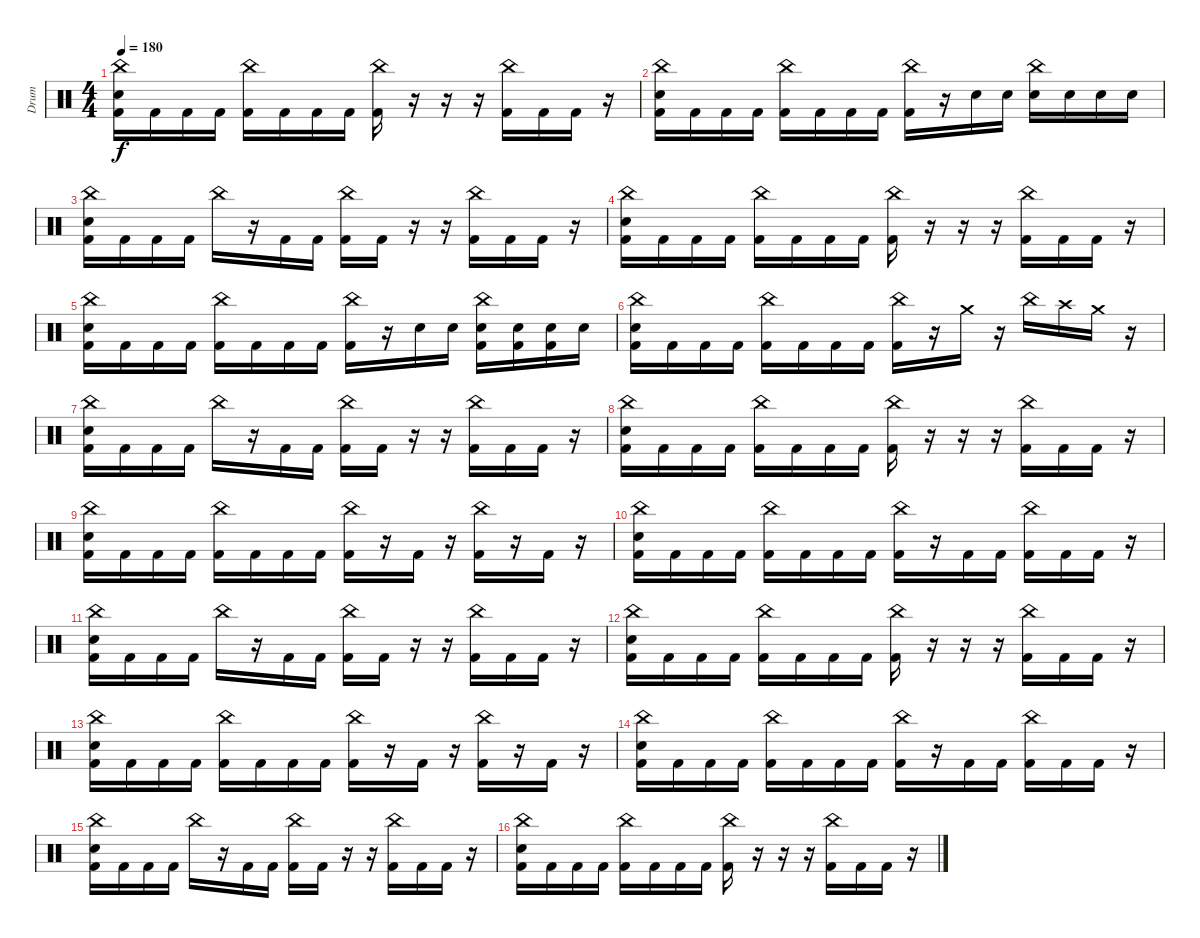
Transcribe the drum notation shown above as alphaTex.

\track ("Drum" "Drum") {instrument percussion}
\staff {score}
\articulation defaults
\ts (4 4)
\tempo 180
\clef neutral
\ks c
("China (hit)" "Electric Snare (hit)" "Kick (hit) 2").16{dy f} "Kick (hit) 2".16 "Kick (hit) 2".16 "Kick (hit) 2".16 ("China (hit)" "Kick (hit) 2").16 "Kick (hit) 2".16 "Kick (hit) 2".16 "Kick (hit) 2".16 ("China (hit)" "Kick (hit) 2").16 r.16 r.16 r.16 ("China (hit)" "Kick (hit) 2").16 "Kick (hit) 2".16 "Kick (hit) 2".16 r.16 |
("China (hit)" "Electric Snare (hit)" "Kick (hit) 2").16 "Kick (hit) 2".16 "Kick (hit) 2".16 "Kick (hit) 2".16 ("China (hit)" "Kick (hit) 2").16 "Kick (hit) 2".16 "Kick (hit) 2".16 "Kick (hit) 2".16 ("China (hit)" "Kick (hit) 2").16 r.16 "Electric Snare (hit)".16 "Electric Snare (hit)".16 ("China (hit)" "Electric Snare (hit)").16 "Electric Snare (hit)".16 "Electric Snare (hit)".16 "Electric Snare (hit)".16 |
("China (hit)" "Electric Snare (hit)" "Kick (hit) 2").16 "Kick (hit) 2".16 "Kick (hit) 2".16 "Kick (hit) 2".16 "China (hit)".16 r.16 "Kick (hit) 2".16 "Kick (hit) 2".16 ("China (hit)" "Kick (hit) 2").16 "Kick (hit) 2".16 r.16 r.16 ("China (hit)" "Kick (hit) 2").16 "Kick (hit) 2".16 "Kick (hit) 2".16 r.16 |
("China (hit)" "Electric Snare (hit)" "Kick (hit) 2").16 "Kick (hit) 2".16 "Kick (hit) 2".16 "Kick (hit) 2".16 ("China (hit)" "Kick (hit) 2").16 "Kick (hit) 2".16 "Kick (hit) 2".16 "Kick (hit) 2".16 ("China (hit)" "Kick (hit) 2").16 r.16 r.16 r.16 ("China (hit)" "Kick (hit) 2").16 "Kick (hit) 2".16 "Kick (hit) 2".16 r.16 |
("China (hit)" "Electric Snare (hit)" "Kick (hit) 2").16 "Kick (hit) 2".16 "Kick (hit) 2".16 "Kick (hit) 2".16 ("China (hit)" "Kick (hit) 2").16 "Kick (hit) 2".16 "Kick (hit) 2".16 "Kick (hit) 2".16 ("China (hit)" "Kick (hit) 2").16 r.16 "Electric Snare (hit)".16 "Electric Snare (hit)".16 ("China (hit)" "Electric Snare (hit)" "Kick (hit) 2").16 ("Electric Snare (hit)" "Kick (hit) 2").16 ("Electric Snare (hit)" "Kick (hit) 2").16 "Electric Snare (hit)".16 |
("China (hit)" "Electric Snare (hit)" "Kick (hit) 2").16 "Kick (hit) 2".16 "Kick (hit) 2".16 "Kick (hit) 2".16 ("China (hit)" "Kick (hit) 2").16 "Kick (hit) 2".16 "Kick (hit) 2".16 "Kick (hit) 2".16 ("China (hit)" "Kick (hit) 2").16 r.16 "Crash medium (hit)".16 r.16 "China (hit)".16 "Crash high (hit)".16 "Crash medium (hit)".16 r.16 |
("China (hit)" "Electric Snare (hit)" "Kick (hit) 2").16 "Kick (hit) 2".16 "Kick (hit) 2".16 "Kick (hit) 2".16 "China (hit)".16 r.16 "Kick (hit) 2".16 "Kick (hit) 2".16 ("China (hit)" "Kick (hit) 2").16 "Kick (hit) 2".16 r.16 r.16 ("China (hit)" "Kick (hit) 2").16 "Kick (hit) 2".16 "Kick (hit) 2".16 r.16 |
("China (hit)" "Electric Snare (hit)" "Kick (hit) 2").16 "Kick (hit) 2".16 "Kick (hit) 2".16 "Kick (hit) 2".16 ("China (hit)" "Kick (hit) 2").16 "Kick (hit) 2".16 "Kick (hit) 2".16 "Kick (hit) 2".16 ("China (hit)" "Kick (hit) 2").16 r.16 r.16 r.16 ("China (hit)" "Kick (hit) 2").16 "Kick (hit) 2".16 "Kick (hit) 2".16 r.16 |
("China (hit)" "Electric Snare (hit)" "Kick (hit) 2").16 "Kick (hit) 2".16 "Kick (hit) 2".16 "Kick (hit) 2".16 ("China (hit)" "Kick (hit) 2").16 "Kick (hit) 2".16 "Kick (hit) 2".16 "Kick (hit) 2".16 ("China (hit)" "Kick (hit) 2").16 r.16 "Kick (hit) 2".16 r.16 ("China (hit)" "Kick (hit) 2").16 r.16 "Kick (hit) 2".16 r.16 |
("China (hit)" "Electric Snare (hit)" "Kick (hit) 2").16 "Kick (hit) 2".16 "Kick (hit) 2".16 "Kick (hit) 2".16 ("China (hit)" "Kick (hit) 2").16 "Kick (hit) 2".16 "Kick (hit) 2".16 "Kick (hit) 2".16 ("China (hit)" "Kick (hit) 2").16 r.16 "Kick (hit) 2".16 "Kick (hit) 2".16 ("China (hit)" "Kick (hit) 2").16 "Kick (hit) 2".16 "Kick (hit) 2".16 r.16 |
("China (hit)" "Electric Snare (hit)" "Kick (hit) 2").16 "Kick (hit) 2".16 "Kick (hit) 2".16 "Kick (hit) 2".16 "China (hit)".16 r.16 "Kick (hit) 2".16 "Kick (hit) 2".16 ("China (hit)" "Kick (hit) 2").16 "Kick (hit) 2".16 r.16 r.16 ("China (hit)" "Kick (hit) 2").16 "Kick (hit) 2".16 "Kick (hit) 2".16 r.16 |
("China (hit)" "Electric Snare (hit)" "Kick (hit) 2").16 "Kick (hit) 2".16 "Kick (hit) 2".16 "Kick (hit) 2".16 ("China (hit)" "Kick (hit) 2").16 "Kick (hit) 2".16 "Kick (hit) 2".16 "Kick (hit) 2".16 ("China (hit)" "Kick (hit) 2").16 r.16 r.16 r.16 ("China (hit)" "Kick (hit) 2").16 "Kick (hit) 2".16 "Kick (hit) 2".16 r.16 |
("China (hit)" "Electric Snare (hit)" "Kick (hit) 2").16 "Kick (hit) 2".16 "Kick (hit) 2".16 "Kick (hit) 2".16 ("China (hit)" "Kick (hit) 2").16 "Kick (hit) 2".16 "Kick (hit) 2".16 "Kick (hit) 2".16 ("China (hit)" "Kick (hit) 2").16 r.16 "Kick (hit) 2".16 r.16 ("China (hit)" "Kick (hit) 2").16 r.16 "Kick (hit) 2".16 r.16 |
("China (hit)" "Electric Snare (hit)" "Kick (hit) 2").16 "Kick (hit) 2".16 "Kick (hit) 2".16 "Kick (hit) 2".16 ("China (hit)" "Kick (hit) 2").16 "Kick (hit) 2".16 "Kick (hit) 2".16 "Kick (hit) 2".16 ("China (hit)" "Kick (hit) 2").16 r.16 "Kick (hit) 2".16 "Kick (hit) 2".16 ("China (hit)" "Kick (hit) 2").16 "Kick (hit) 2".16 "Kick (hit) 2".16 r.16 |
("China (hit)" "Electric Snare (hit)" "Kick (hit) 2").16 "Kick (hit) 2".16 "Kick (hit) 2".16 "Kick (hit) 2".16 "China (hit)".16 r.16 "Kick (hit) 2".16 "Kick (hit) 2".16 ("China (hit)" "Kick (hit) 2").16 "Kick (hit) 2".16 r.16 r.16 ("China (hit)" "Kick (hit) 2").16 "Kick (hit) 2".16 "Kick (hit) 2".16 r.16 |
("China (hit)" "Electric Snare (hit)" "Kick (hit) 2").16 "Kick (hit) 2".16 "Kick (hit) 2".16 "Kick (hit) 2".16 ("China (hit)" "Kick (hit) 2").16 "Kick (hit) 2".16 "Kick (hit) 2".16 "Kick (hit) 2".16 ("China (hit)" "Kick (hit) 2").16 r.16 r.16 r.16 ("China (hit)" "Kick (hit) 2").16 "Kick (hit) 2".16 "Kick (hit) 2".16 r.16
